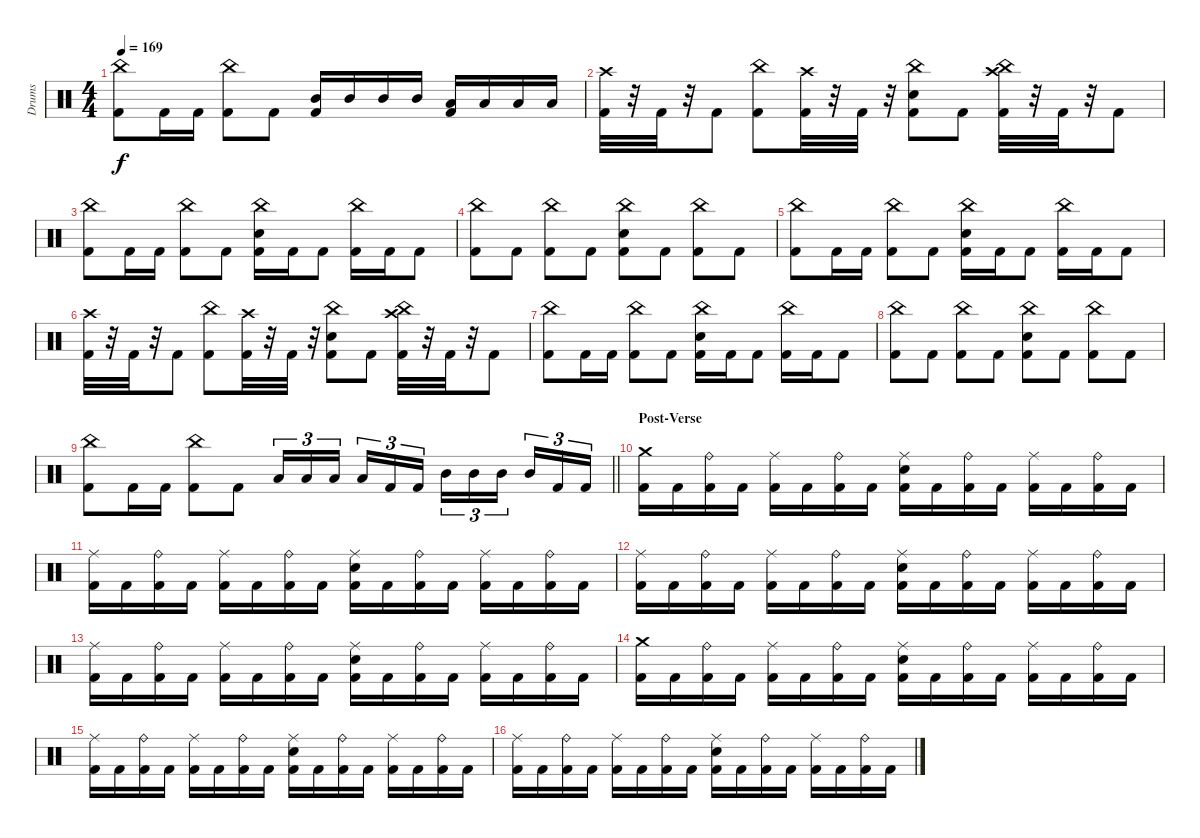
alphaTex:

\track ("Drums" "Drums") {instrument percussion}
\staff {score}
\articulation defaults
\ts (4 4)
\tempo 169
\clef neutral
\ks c
("China (hit)" "Kick (hit) 2").8{dy f} "Kick (hit) 2".16 "Kick (hit) 2".16 ("China (hit)" "Kick (hit) 2").8 "Kick (hit) 2".8 ("Mid Tom (hit)" "Kick (hit) 2").16 "Mid Tom (hit)".16 "Mid Tom (hit)".16 "Mid Tom (hit)".16 ("Low Tom (hit)" "Kick (hit) 2").16 "Low Tom (hit)".16 "Low Tom (hit)".16 "Low Tom (hit)".16 |
("Crash high (hit)" "Kick (hit) 2").32 r.32 "Kick (hit) 2".32 r.32 "Kick (hit) 2".8 ("China (hit)" "Kick (hit) 2").8 ("Crash high (hit)" "Kick (hit) 2").32 r.32 "Kick (hit) 2".32 r.32 ("China (hit)" "Snare (hit) 2" "Kick (hit) 2").8 "Kick (hit) 2".8 ("Crash high (hit)" "China (hit)" "Kick (hit) 2").32 r.32 "Kick (hit) 2".32 r.32 "Kick (hit) 2".8 |
("China (hit)" "Kick (hit) 2").8 "Kick (hit) 2".16 "Kick (hit) 2".16 ("China (hit)" "Kick (hit) 2").8 "Kick (hit) 2".8 ("China (hit)" "Snare (hit) 2" "Kick (hit) 2").16 "Kick (hit) 2".16 "Kick (hit) 2".8 ("China (hit)" "Kick (hit) 2").16 "Kick (hit) 2".16 "Kick (hit) 2".8 |
("China (hit)" "Kick (hit) 2").8 "Kick (hit) 2".8 ("China (hit)" "Kick (hit) 2").8 "Kick (hit) 2".8 ("China (hit)" "Snare (hit) 2" "Kick (hit) 2").8 "Kick (hit) 2".8 ("China (hit)" "Kick (hit) 2").8 "Kick (hit) 2".8 |
("China (hit)" "Kick (hit) 2").8 "Kick (hit) 2".16 "Kick (hit) 2".16 ("China (hit)" "Kick (hit) 2").8 "Kick (hit) 2".8 ("China (hit)" "Snare (hit) 2" "Kick (hit) 2").16 "Kick (hit) 2".16 "Kick (hit) 2".8 ("China (hit)" "Kick (hit) 2").16 "Kick (hit) 2".16 "Kick (hit) 2".8 |
("Crash high (hit)" "Kick (hit) 2").32 r.32 "Kick (hit) 2".32 r.32 "Kick (hit) 2".8 ("China (hit)" "Kick (hit) 2").8 ("Crash high (hit)" "Kick (hit) 2").32 r.32 "Kick (hit) 2".32 r.32 ("China (hit)" "Snare (hit) 2" "Kick (hit) 2").8 "Kick (hit) 2".8 ("Crash high (hit)" "China (hit)" "Kick (hit) 2").32 r.32 "Kick (hit) 2".32 r.32 "Kick (hit) 2".8 |
("China (hit)" "Kick (hit) 2").8 "Kick (hit) 2".16 "Kick (hit) 2".16 ("China (hit)" "Kick (hit) 2").8 "Kick (hit) 2".8 ("China (hit)" "Snare (hit) 2" "Kick (hit) 2").16 "Kick (hit) 2".16 "Kick (hit) 2".8 ("China (hit)" "Kick (hit) 2").16 "Kick (hit) 2".16 "Kick (hit) 2".8 |
("China (hit)" "Kick (hit) 2").8 "Kick (hit) 2".8 ("China (hit)" "Kick (hit) 2").8 "Kick (hit) 2".8 ("China (hit)" "Snare (hit) 2" "Kick (hit) 2").8 "Kick (hit) 2".8 ("China (hit)" "Kick (hit) 2").8 "Kick (hit) 2".8 |
\barLineRight lightlight
("China (hit)" "Kick (hit) 2").8 "Kick (hit) 2".16 "Kick (hit) 2".16 ("China (hit)" "Kick (hit) 2").8 "Kick (hit) 2".8 "Low Tom (hit)".16{tu (3 2)} "Low Tom (hit)".16{tu (3 2)} "Low Tom (hit)".16{tu (3 2) beam splitsecondary} "Low Tom (hit)".16{tu (3 2)} "Kick (hit) 2".16{tu (3 2)} "Kick (hit) 2".16{tu (3 2)} "Mid Tom (hit)".16{tu (3 2)} "Mid Tom (hit)".16{tu (3 2)} "Mid Tom (hit)".16{tu (3 2) beam splitsecondary} "Mid Tom (hit)".16{tu (3 2)} "Kick (hit) 2".16{tu (3 2)} "Kick (hit) 2".16{tu (3 2)} |
\section ("" "Post-Verse")
("Crash medium (hit)" "Kick (hit) 2").16 "Kick (hit) 2".16 ("Ride (bell)" "Kick (hit) 2").16 "Kick (hit) 2".16 ("Ride (middle)" "Kick (hit) 2").16 "Kick (hit) 2".16 ("Ride (bell)" "Kick (hit) 2").16 "Kick (hit) 2".16 ("Ride (middle)" "Snare (hit) 2" "Kick (hit) 2").16 "Kick (hit) 2".16 ("Ride (bell)" "Kick (hit) 2").16 "Kick (hit) 2".16 ("Ride (middle)" "Kick (hit) 2").16 "Kick (hit) 2".16 ("Ride (bell)" "Kick (hit) 2").16 "Kick (hit) 2".16 |
("Ride (middle)" "Kick (hit) 2").16 "Kick (hit) 2".16 ("Ride (bell)" "Kick (hit) 2").16 "Kick (hit) 2".16 ("Ride (middle)" "Kick (hit) 2").16 "Kick (hit) 2".16 ("Ride (bell)" "Kick (hit) 2").16 "Kick (hit) 2".16 ("Ride (middle)" "Snare (hit) 2" "Kick (hit) 2").16 "Kick (hit) 2".16 ("Ride (bell)" "Kick (hit) 2").16 "Kick (hit) 2".16 ("Ride (middle)" "Kick (hit) 2").16 "Kick (hit) 2".16 ("Ride (bell)" "Kick (hit) 2").16 "Kick (hit) 2".16 |
("Ride (middle)" "Kick (hit) 2").16 "Kick (hit) 2".16 ("Ride (bell)" "Kick (hit) 2").16 "Kick (hit) 2".16 ("Ride (middle)" "Kick (hit) 2").16 "Kick (hit) 2".16 ("Ride (bell)" "Kick (hit) 2").16 "Kick (hit) 2".16 ("Ride (middle)" "Snare (hit) 2" "Kick (hit) 2").16 "Kick (hit) 2".16 ("Ride (bell)" "Kick (hit) 2").16 "Kick (hit) 2".16 ("Ride (middle)" "Kick (hit) 2").16 "Kick (hit) 2".16 ("Ride (bell)" "Kick (hit) 2").16 "Kick (hit) 2".16 |
("Ride (middle)" "Kick (hit) 2").16 "Kick (hit) 2".16 ("Ride (bell)" "Kick (hit) 2").16 "Kick (hit) 2".16 ("Ride (middle)" "Kick (hit) 2").16 "Kick (hit) 2".16 ("Ride (bell)" "Kick (hit) 2").16 "Kick (hit) 2".16 ("Ride (middle)" "Snare (hit) 2" "Kick (hit) 2").16 "Kick (hit) 2".16 ("Ride (bell)" "Kick (hit) 2").16 "Kick (hit) 2".16 ("Ride (middle)" "Kick (hit) 2").16 "Kick (hit) 2".16 ("Ride (bell)" "Kick (hit) 2").16 "Kick (hit) 2".16 |
("Crash medium (hit)" "Kick (hit) 2").16 "Kick (hit) 2".16 ("Ride (bell)" "Kick (hit) 2").16 "Kick (hit) 2".16 ("Ride (middle)" "Kick (hit) 2").16 "Kick (hit) 2".16 ("Ride (bell)" "Kick (hit) 2").16 "Kick (hit) 2".16 ("Ride (middle)" "Snare (hit) 2" "Kick (hit) 2").16 "Kick (hit) 2".16 ("Ride (bell)" "Kick (hit) 2").16 "Kick (hit) 2".16 ("Ride (middle)" "Kick (hit) 2").16 "Kick (hit) 2".16 ("Ride (bell)" "Kick (hit) 2").16 "Kick (hit) 2".16 |
("Ride (middle)" "Kick (hit) 2").16 "Kick (hit) 2".16 ("Ride (bell)" "Kick (hit) 2").16 "Kick (hit) 2".16 ("Ride (middle)" "Kick (hit) 2").16 "Kick (hit) 2".16 ("Ride (bell)" "Kick (hit) 2").16 "Kick (hit) 2".16 ("Ride (middle)" "Snare (hit) 2" "Kick (hit) 2").16 "Kick (hit) 2".16 ("Ride (bell)" "Kick (hit) 2").16 "Kick (hit) 2".16 ("Ride (middle)" "Kick (hit) 2").16 "Kick (hit) 2".16 ("Ride (bell)" "Kick (hit) 2").16 "Kick (hit) 2".16 |
("Ride (middle)" "Kick (hit) 2").16 "Kick (hit) 2".16 ("Ride (bell)" "Kick (hit) 2").16 "Kick (hit) 2".16 ("Ride (middle)" "Kick (hit) 2").16 "Kick (hit) 2".16 ("Ride (bell)" "Kick (hit) 2").16 "Kick (hit) 2".16 ("Ride (middle)" "Snare (hit) 2" "Kick (hit) 2").16 "Kick (hit) 2".16 ("Ride (bell)" "Kick (hit) 2").16 "Kick (hit) 2".16 ("Ride (middle)" "Kick (hit) 2").16 "Kick (hit) 2".16 ("Ride (bell)" "Kick (hit) 2").16 "Kick (hit) 2".16
